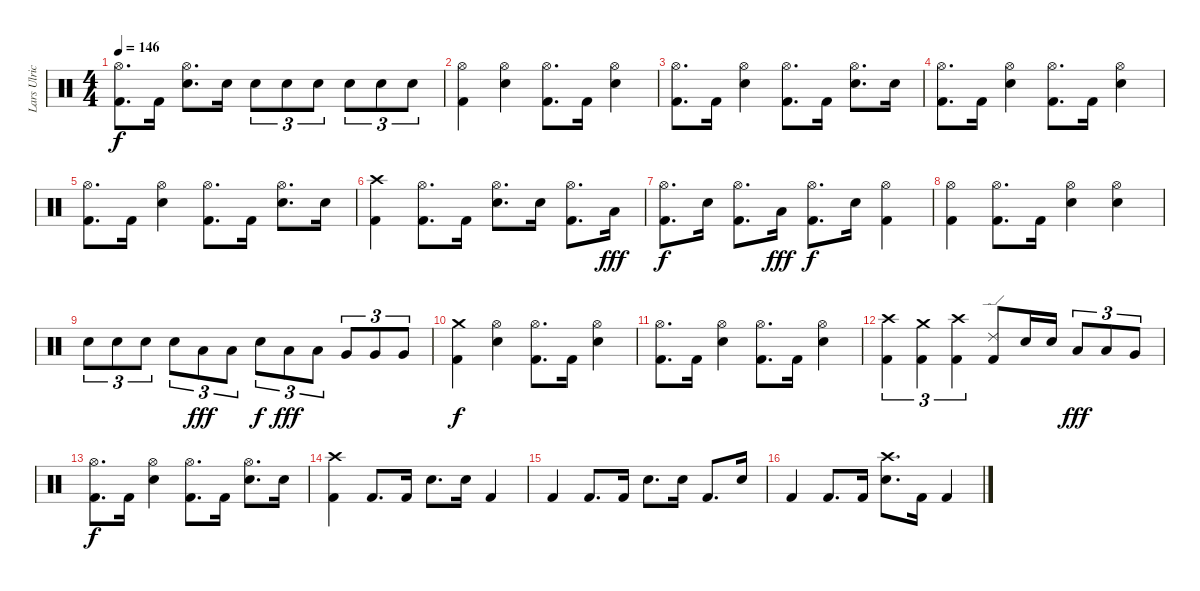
\track ("Lars Ulrich" "Lars Ulric") {instrument percussion}
\staff {score}
\articulation defaults
\ts (4 4)
\tempo 146
\clef neutral
\ks c
("Hi-Hat (open)" "Kick (hit) 2").8{d dy f} "Kick (hit) 2".16 ("Hi-Hat (open)" "Electric Snare (hit)").8{d} "Electric Snare (hit)".16 "Electric Snare (hit)".8{tu (3 2)} "Electric Snare (hit)".8{tu (3 2)} "Electric Snare (hit)".8{tu (3 2)} "Electric Snare (hit)".8{tu (3 2)} "Electric Snare (hit)".8{tu (3 2)} "Electric Snare (hit)".8{tu (3 2)} |
("Hi-Hat (open)" "Kick (hit) 2").4 ("Hi-Hat (open)" "Electric Snare (hit)").4 ("Hi-Hat (open)" "Kick (hit) 2").8{d} "Kick (hit) 2".16 ("Hi-Hat (open)" "Electric Snare (hit)").4 |
("Hi-Hat (open)" "Kick (hit) 2").8{d} "Kick (hit) 2".16 ("Hi-Hat (open)" "Electric Snare (hit)").4 ("Hi-Hat (open)" "Kick (hit) 2").8{d} "Kick (hit) 2".16 ("Hi-Hat (open)" "Electric Snare (hit)").8{d} "Electric Snare (hit)".16 |
("Hi-Hat (open)" "Kick (hit) 2").8{d} "Kick (hit) 2".16 ("Hi-Hat (open)" "Electric Snare (hit)").4 ("Hi-Hat (open)" "Kick (hit) 2").8{d} "Kick (hit) 2".16 ("Hi-Hat (open)" "Electric Snare (hit)").4 |
("Hi-Hat (open)" "Kick (hit) 2").8{d} "Kick (hit) 2".16 ("Hi-Hat (open)" "Electric Snare (hit)").4 ("Hi-Hat (open)" "Kick (hit) 2").8{d} "Kick (hit) 2".16 ("Hi-Hat (open)" "Electric Snare (hit)").8{d} "Electric Snare (hit)".16 |
("Crash high (hit)" "Kick (hit) 2").4 ("Hi-Hat (open)" "Kick (hit) 2").8{d} "Kick (hit) 2".16 ("Hi-Hat (open)" "Electric Snare (hit)").8{d} "Electric Snare (hit)".16 ("Hi-Hat (open)" "Kick (hit) 2").8{d} "Low Tom (hit)".16{dy fff} |
("Hi-Hat (open)" "Kick (hit) 2").8{d dy f} "Electric Snare (hit)".16 ("Hi-Hat (open)" "Kick (hit) 2").8{d} "Low Tom (hit)".16{dy fff} ("Hi-Hat (open)" "Kick (hit) 2").8{d dy f} "Electric Snare (hit)".16 ("Hi-Hat (open)" "Kick (hit) 2").4 |
("Hi-Hat (open)" "Kick (hit) 2").4 ("Hi-Hat (open)" "Kick (hit) 2").8{d} "Kick (hit) 2".16 ("Hi-Hat (open)" "Electric Snare (hit)").4 ("Hi-Hat (open)" "Electric Snare (hit)").4 |
"Electric Snare (hit)".8{tu (3 2)} "Electric Snare (hit)".8{tu (3 2)} "Electric Snare (hit)".8{tu (3 2)} "Electric Snare (hit)".8{tu (3 2)} "Low Tom (hit)".8{tu (3 2) dy fff} "Low Tom (hit)".8{tu (3 2)} "Electric Snare (hit)".8{tu (3 2) dy f} "Low Tom (hit)".8{tu (3 2) dy fff} "Low Tom (hit)".8{tu (3 2)} "Very Low Tom (hit)".8{tu (3 2)} "Very Low Tom (hit)".8{tu (3 2)} "Very Low Tom (hit)".8{tu (3 2)} |
("Crash medium (hit)" "Kick (hit) 2").4{dy f} ("Hi-Hat (open)" "Electric Snare (hit)").4 ("Hi-Hat (open)" "Kick (hit) 2").8{d} "Kick (hit) 2".16 ("Hi-Hat (open)" "Electric Snare (hit)").4 |
("Hi-Hat (open)" "Kick (hit) 2").8{d} "Kick (hit) 2".16 ("Hi-Hat (open)" "Electric Snare (hit)").4 ("Hi-Hat (open)" "Kick (hit) 2").8{d} "Kick (hit) 2".16 ("Hi-Hat (open)" "Electric Snare (hit)").4 |
("Crash high (hit)" "Kick (hit) 2").4{tu (3 2)} ("Crash medium (hit)" "Kick (hit) 2").4{tu (3 2)} ("Crash high (hit)" "Kick (hit) 2").4{tu (3 2)} ("Ride (edge) 2" "Kick (hit) 2").8 "Electric Snare (hit)".16 "Electric Snare (hit)".16 "Low Tom (hit)".8{tu (3 2) dy fff} "Low Tom (hit)".8{tu (3 2)} "Very Low Tom (hit)".8{tu (3 2)} |
("Hi-Hat (open)" "Kick (hit) 2").8{d dy f} "Kick (hit) 2".16 ("Hi-Hat (open)" "Electric Snare (hit)").4 ("Hi-Hat (open)" "Kick (hit) 2").8{d} "Kick (hit) 2".16 ("Hi-Hat (open)" "Electric Snare (hit)").8{d} "Electric Snare (hit)".16 |
("Crash high (hit)" "Kick (hit) 2").4 "Kick (hit) 2".8{d} "Kick (hit) 2".16 "Electric Snare (hit)".8{d} "Electric Snare (hit)".16 "Kick (hit) 2".4 |
"Kick (hit) 2".4 "Kick (hit) 2".8{d} "Kick (hit) 2".16 "Electric Snare (hit)".8{d} "Electric Snare (hit)".16 "Kick (hit) 2".8{d} "Electric Snare (hit)".16 |
"Kick (hit) 2".4 "Kick (hit) 2".8{d} "Kick (hit) 2".16 ("Crash high (hit)" "Electric Snare (hit)").8{d} "Kick (hit) 2".16 "Kick (hit) 2".4
